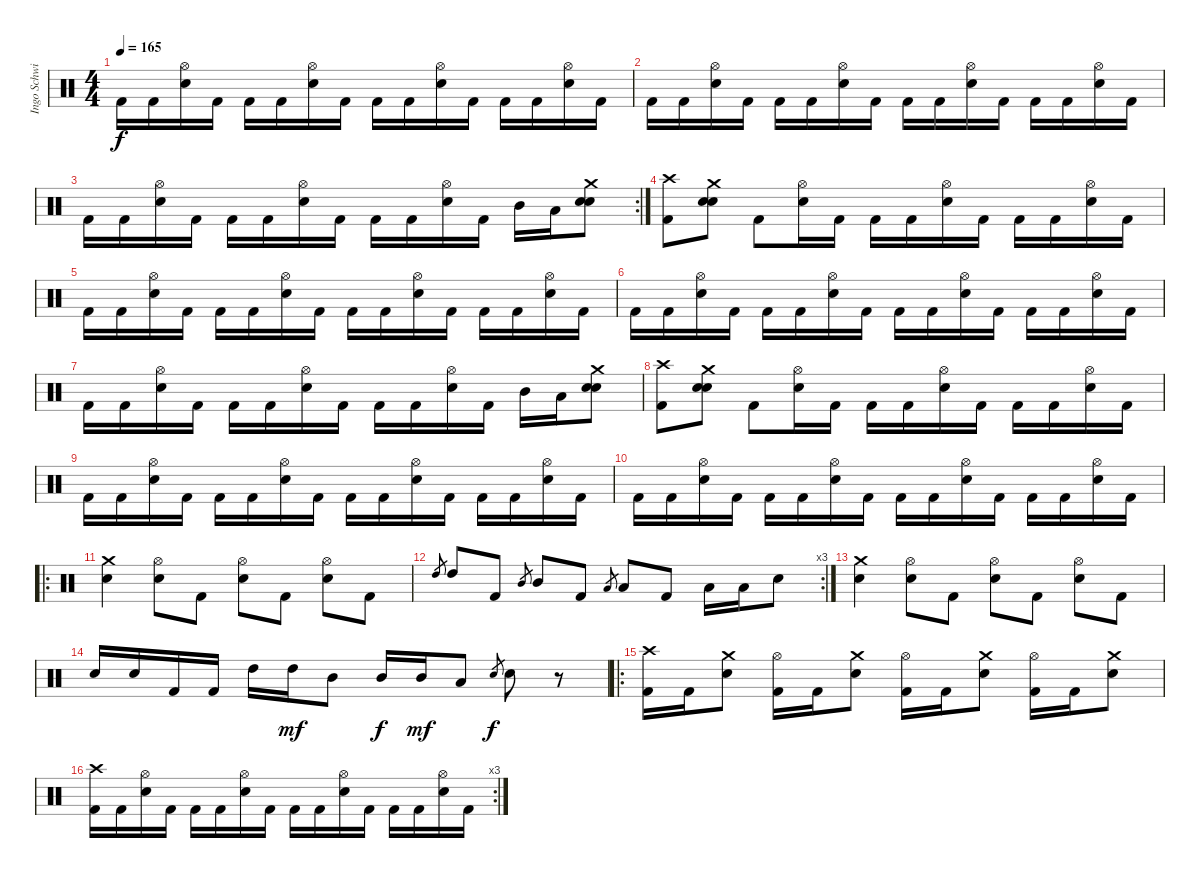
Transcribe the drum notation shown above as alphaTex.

\track ("Ingo Schwischtenberg" "Ingo Schwi") {instrument percussion}
\staff {score}
\articulation defaults
\ts (4 4)
\tempo 165
\clef neutral
\ks c "Kick (hit) 2".16{dy f} "Kick (hit) 2".16
("Hi-Hat (open)" "Snare (hit) 2").16 "Kick (hit) 2".16 "Kick (hit) 2".16 "Kick (hit) 2".16 ("Hi-Hat (open)" "Snare (hit) 2").16 "Kick (hit) 2".16 "Kick (hit) 2".16 "Kick (hit) 2".16 ("Hi-Hat (open)" "Snare (hit) 2").16 "Kick (hit) 2".16 "Kick (hit) 2".16 "Kick (hit) 2".16 ("Hi-Hat (open)" "Snare (hit) 2").16 "Kick (hit) 2".16 |
"Kick (hit) 2".16 "Kick (hit) 2".16 ("Hi-Hat (open)" "Snare (hit) 2").16 "Kick (hit) 2".16 "Kick (hit) 2".16 "Kick (hit) 2".16 ("Hi-Hat (open)" "Snare (hit) 2").16 "Kick (hit) 2".16 "Kick (hit) 2".16 "Kick (hit) 2".16 ("Hi-Hat (open)" "Snare (hit) 2").16 "Kick (hit) 2".16 "Kick (hit) 2".16 "Kick (hit) 2".16 ("Hi-Hat (open)" "Snare (hit) 2").16 "Kick (hit) 2".16 |
\rc 2 "Kick (hit) 2".16 "Kick (hit) 2".16
("Hi-Hat (open)" "Snare (hit) 2").16 "Kick (hit) 2".16 "Kick (hit) 2".16 "Kick (hit) 2".16 ("Hi-Hat (open)" "Snare (hit) 2").16 "Kick (hit) 2".16 "Kick (hit) 2".16 "Kick (hit) 2".16 ("Hi-Hat (open)" "Snare (hit) 2").16 "Kick (hit) 2".16 "Mid Tom (hit)".16 "Low Tom (hit)".16 ("Crash medium (hit)" "Snare (hit) 2" "Electric Snare (hit)").8 |
("Crash high (hit)" "Kick (hit) 2").8 ("Crash medium (hit)" "Snare (hit) 2" "Electric Snare (hit)").8 "Kick (hit) 2".8 ("Hi-Hat (open)" "Snare (hit) 2").16 "Kick (hit) 2".16 "Kick (hit) 2".16 "Kick (hit) 2".16 ("Hi-Hat (open)" "Snare (hit) 2").16 "Kick (hit) 2".16 "Kick (hit) 2".16 "Kick (hit) 2".16 ("Hi-Hat (open)" "Snare (hit) 2").16 "Kick (hit) 2".16 |
"Kick (hit) 2".16 "Kick (hit) 2".16 ("Hi-Hat (open)" "Snare (hit) 2").16 "Kick (hit) 2".16 "Kick (hit) 2".16 "Kick (hit) 2".16 ("Hi-Hat (open)" "Snare (hit) 2").16 "Kick (hit) 2".16 "Kick (hit) 2".16 "Kick (hit) 2".16 ("Hi-Hat (open)" "Snare (hit) 2").16 "Kick (hit) 2".16 "Kick (hit) 2".16 "Kick (hit) 2".16 ("Hi-Hat (open)" "Snare (hit) 2").16 "Kick (hit) 2".16 |
"Kick (hit) 2".16 "Kick (hit) 2".16 ("Hi-Hat (open)" "Snare (hit) 2").16 "Kick (hit) 2".16 "Kick (hit) 2".16 "Kick (hit) 2".16 ("Hi-Hat (open)" "Snare (hit) 2").16 "Kick (hit) 2".16 "Kick (hit) 2".16 "Kick (hit) 2".16 ("Hi-Hat (open)" "Snare (hit) 2").16 "Kick (hit) 2".16 "Kick (hit) 2".16 "Kick (hit) 2".16 ("Hi-Hat (open)" "Snare (hit) 2").16 "Kick (hit) 2".16 |
"Kick (hit) 2".16 "Kick (hit) 2".16 ("Hi-Hat (open)" "Snare (hit) 2").16 "Kick (hit) 2".16 "Kick (hit) 2".16 "Kick (hit) 2".16 ("Hi-Hat (open)" "Snare (hit) 2").16 "Kick (hit) 2".16 "Kick (hit) 2".16 "Kick (hit) 2".16 ("Hi-Hat (open)" "Snare (hit) 2").16 "Kick (hit) 2".16 "Mid Tom (hit)".16 "Low Tom (hit)".16 ("Crash medium (hit)" "Snare (hit) 2" "Electric Snare (hit)").8 |
("Crash high (hit)" "Kick (hit) 2").8 ("Crash medium (hit)" "Snare (hit) 2" "Electric Snare (hit)").8 "Kick (hit) 2".8 ("Hi-Hat (open)" "Snare (hit) 2").16 "Kick (hit) 2".16 "Kick (hit) 2".16 "Kick (hit) 2".16 ("Hi-Hat (open)" "Snare (hit) 2").16 "Kick (hit) 2".16 "Kick (hit) 2".16 "Kick (hit) 2".16 ("Hi-Hat (open)" "Snare (hit) 2").16 "Kick (hit) 2".16 |
"Kick (hit) 2".16 "Kick (hit) 2".16 ("Hi-Hat (open)" "Snare (hit) 2").16 "Kick (hit) 2".16 "Kick (hit) 2".16 "Kick (hit) 2".16 ("Hi-Hat (open)" "Snare (hit) 2").16 "Kick (hit) 2".16 "Kick (hit) 2".16 "Kick (hit) 2".16 ("Hi-Hat (open)" "Snare (hit) 2").16 "Kick (hit) 2".16 "Kick (hit) 2".16 "Kick (hit) 2".16 ("Hi-Hat (open)" "Snare (hit) 2").16 "Kick (hit) 2".16 |
"Kick (hit) 2".16 "Kick (hit) 2".16 ("Hi-Hat (open)" "Snare (hit) 2").16 "Kick (hit) 2".16 "Kick (hit) 2".16 "Kick (hit) 2".16 ("Hi-Hat (open)" "Snare (hit) 2").16 "Kick (hit) 2".16 "Kick (hit) 2".16 "Kick (hit) 2".16 ("Hi-Hat (open)" "Snare (hit) 2").16 "Kick (hit) 2".16 "Kick (hit) 2".16 "Kick (hit) 2".16 ("Hi-Hat (open)" "Snare (hit) 2").16 "Kick (hit) 2".16 |
\ro
("Crash medium (hit)" "Snare (hit) 2").4 ("Hi-Hat (open)" "Snare (hit) 2").8 "Kick (hit) 2".8 ("Hi-Hat (open)" "Snare (hit) 2").8 "Kick (hit) 2".8 ("Hi-Hat (open)" "Snare (hit) 2").8 "Kick (hit) 2".8 |
\rc 3 "High Tom (hit)".8{gr} "High Tom (hit)".8 "Kick (hit) 2".8 "Mid Tom (hit)".8{gr} "Mid Tom (hit)".8 "Kick (hit) 2".8 "Low Tom (hit)".8{gr} "Low Tom (hit)".8 "Kick (hit) 2".8 "Low Tom (hit)".16 "Low Tom (hit)".16 "Snare (hit) 2".8
|
("Crash medium (hit)" "Snare (hit) 2").4 ("Hi-Hat (open)" "Snare (hit) 2").8 "Kick (hit) 2".8 ("Hi-Hat (open)" "Snare (hit) 2").8 "Kick (hit) 2".8 ("Hi-Hat (open)" "Snare (hit) 2").8 "Kick (hit) 2".8 |
"Snare (hit) 2".16 "Snare (hit) 2".16 "Kick (hit) 2".16 "Kick (hit) 2".16 "High Tom (hit)".16 "High Tom (hit)".16{dy mf} "Mid Tom (hit)".8 "Mid Tom (hit)".16{dy f} "Mid Tom (hit)".16{dy mf} "Low Tom (hit)".8 "Snare (hit) 2".8{gr dy f} "Snare (hit) 2".8 r.8 |
\ro
("Crash high (hit)" "Kick (hit) 2").16 "Kick (hit) 2".16 ("Crash medium (hit)" "Snare (hit) 2").8 ("Hi-Hat (open)" "Kick (hit) 2").16 "Kick (hit) 2".16 ("Crash medium (hit)" "Snare (hit) 2").8 ("Hi-Hat (open)" "Kick (hit) 2").16 "Kick (hit) 2".16 ("Crash medium (hit)" "Snare (hit) 2").8 ("Hi-Hat (open)" "Kick (hit) 2").16 "Kick (hit) 2".16 ("Crash medium (hit)" "Snare (hit) 2").8 |
\rc 3
("Crash high (hit)" "Kick (hit) 2").16 "Kick (hit) 2".16 ("Hi-Hat (open)" "Snare (hit) 2").16 "Kick (hit) 2".16 "Kick (hit) 2".16 "Kick (hit) 2".16 ("Hi-Hat (open)" "Snare (hit) 2").16 "Kick (hit) 2".16 "Kick (hit) 2".16 "Kick (hit) 2".16 ("Hi-Hat (open)" "Snare (hit) 2").16 "Kick (hit) 2".16 "Kick (hit) 2".16 "Kick (hit) 2".16 ("Hi-Hat (open)" "Snare (hit) 2").16 "Kick (hit) 2".16
